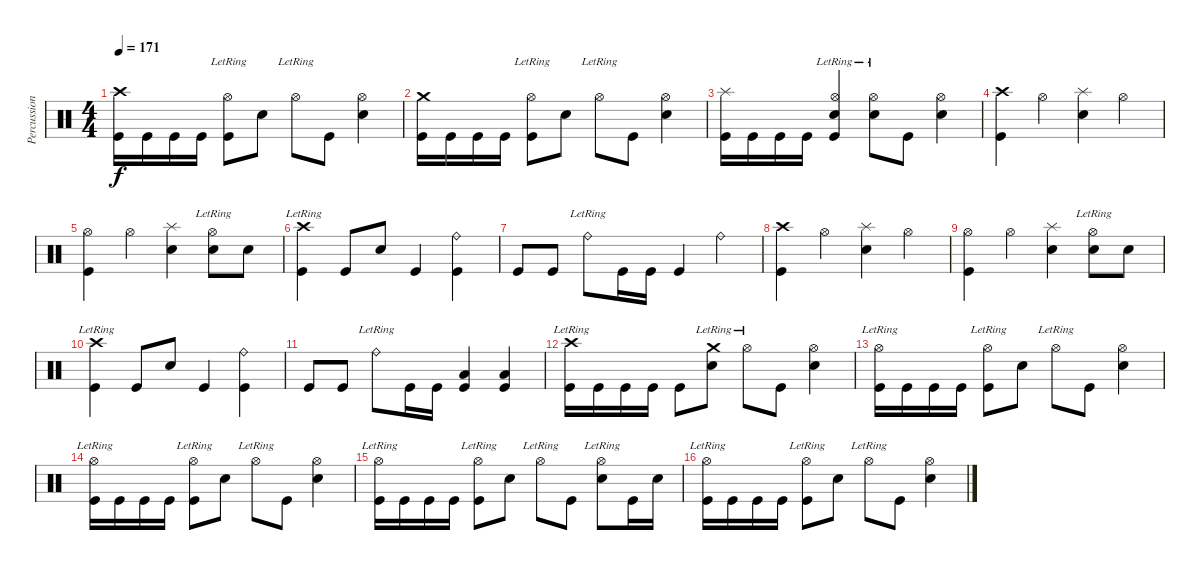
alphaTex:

\track ("Percussions" "Percussion") {instrument percussion}
\staff {score}
\articulation defaults
\ts (4 4)
\tempo 171
\clef neutral
\ks c
("Crash high (hit)" "Kick (hit)").16{dy f} "Kick (hit)".16 "Kick (hit)".16 "Kick (hit)".16 ("Hi-Hat (open)"{lr} "Kick (hit)").8 "Snare (hit) 2".8 "Hi-Hat (open)"{lr}.8 "Kick (hit)".8 ("Hi-Hat (open)" "Snare (hit) 2").4 |
("Crash medium (hit)" "Kick (hit)").16 "Kick (hit)".16 "Kick (hit)".16 "Kick (hit)".16 ("Hi-Hat (open)"{lr} "Kick (hit)").8 "Snare (hit) 2".8 "Hi-Hat (open)"{lr}.8 "Kick (hit)".8 ("Hi-Hat (open)" "Snare (hit) 2").4 |
("Splash (hit)" "Kick (hit)").16 "Kick (hit)".16 "Kick (hit)".16 "Kick (hit)".16 ("Hi-Hat (open)"{lr} "Snare (hit) 2" "Kick (hit)").4 ("Hi-Hat (open)"{lr} "Snare (hit) 2").8 "Kick (hit)".8 ("Hi-Hat (open)" "Snare (hit) 2").4 |
("Crash high (hit)" "Kick (hit)").4 "Hi-Hat (open)".4 ("Splash (hit)" "Snare (hit) 2").4 "Hi-Hat (open)".4 |
("Hi-Hat (open)" "Kick (hit)").4 "Hi-Hat (open)".4 ("Splash (hit)" "Snare (hit) 2").4 ("Hi-Hat (open)"{lr} "Snare (hit) 2").8 "Snare (hit) 2".8 |
("Crash high (hit)"{lr} "Kick (hit)").4 "Kick (hit)".8 "Snare (hit) 2".8 "Kick (hit)".4 ("Ride (bell)" "Kick (hit)").4 |
"Kick (hit)".8 "Kick (hit)".8 "Ride (bell)"{lr}.8 "Kick (hit)".16 "Kick (hit)".16 "Kick (hit)".4 "Ride (bell)".4 |
("Crash high (hit)" "Kick (hit)").4 "Hi-Hat (open)".4 ("Splash (hit)" "Snare (hit) 2").4 "Hi-Hat (open)".4 |
("Hi-Hat (open)" "Kick (hit)").4 "Hi-Hat (open)".4 ("Splash (hit)" "Snare (hit) 2").4 ("Hi-Hat (open)"{lr} "Snare (hit) 2").8 "Snare (hit) 2".8 |
("Crash high (hit)"{lr} "Kick (hit)").4 "Kick (hit)".8 "Snare (hit) 2".8 "Kick (hit)".4 ("Ride (bell)" "Kick (hit)").4 |
"Kick (hit)".8 "Kick (hit)".8 "Ride (bell)"{lr}.8 "Kick (hit)".16 "Kick (hit)".16 ("Low Floor Tom (hit)" "Kick (hit)").4 ("Low Floor Tom (hit)" "Kick (hit)").4 |
("Crash high (hit)"{lr} "Kick (hit)").16 "Kick (hit)".16 "Kick (hit)".16 "Kick (hit)".16 "Kick (hit)".8 ("Crash medium (hit)"{lr} "Snare (hit) 2").8 "Hi-Hat (open)"{lr}.8 "Kick (hit)".8 ("Hi-Hat (open)" "Snare (hit) 2").4 |
("Hi-Hat (open)"{lr} "Kick (hit)").16 "Kick (hit)".16 "Kick (hit)".16 "Kick (hit)".16 ("Hi-Hat (open)"{lr} "Kick (hit)").8 "Snare (hit) 2".8 "Hi-Hat (open)"{lr}.8 "Kick (hit)".8 ("Hi-Hat (open)" "Snare (hit) 2").4 |
("Hi-Hat (open)"{lr} "Kick (hit)").16 "Kick (hit)".16 "Kick (hit)".16 "Kick (hit)".16 ("Hi-Hat (open)"{lr} "Kick (hit)").8 "Snare (hit) 2".8 "Hi-Hat (open)"{lr}.8 "Kick (hit)".8 ("Hi-Hat (open)" "Snare (hit) 2").4 |
("Hi-Hat (open)"{lr} "Kick (hit)").16 "Kick (hit)".16 "Kick (hit)".16 "Kick (hit)".16 ("Hi-Hat (open)"{lr} "Kick (hit)").8 "Snare (hit) 2".8 "Hi-Hat (open)"{lr}.8 "Kick (hit)".8 ("Hi-Hat (open)"{lr} "Snare (hit) 2").8 "Kick (hit)".16 "Snare (hit) 2".16 |
("Hi-Hat (open)"{lr} "Kick (hit)").16 "Kick (hit)".16 "Kick (hit)".16 "Kick (hit)".16 ("Hi-Hat (open)"{lr} "Kick (hit)").8 "Snare (hit) 2".8 "Hi-Hat (open)"{lr}.8 "Kick (hit)".8 ("Hi-Hat (open)" "Snare (hit) 2").4
